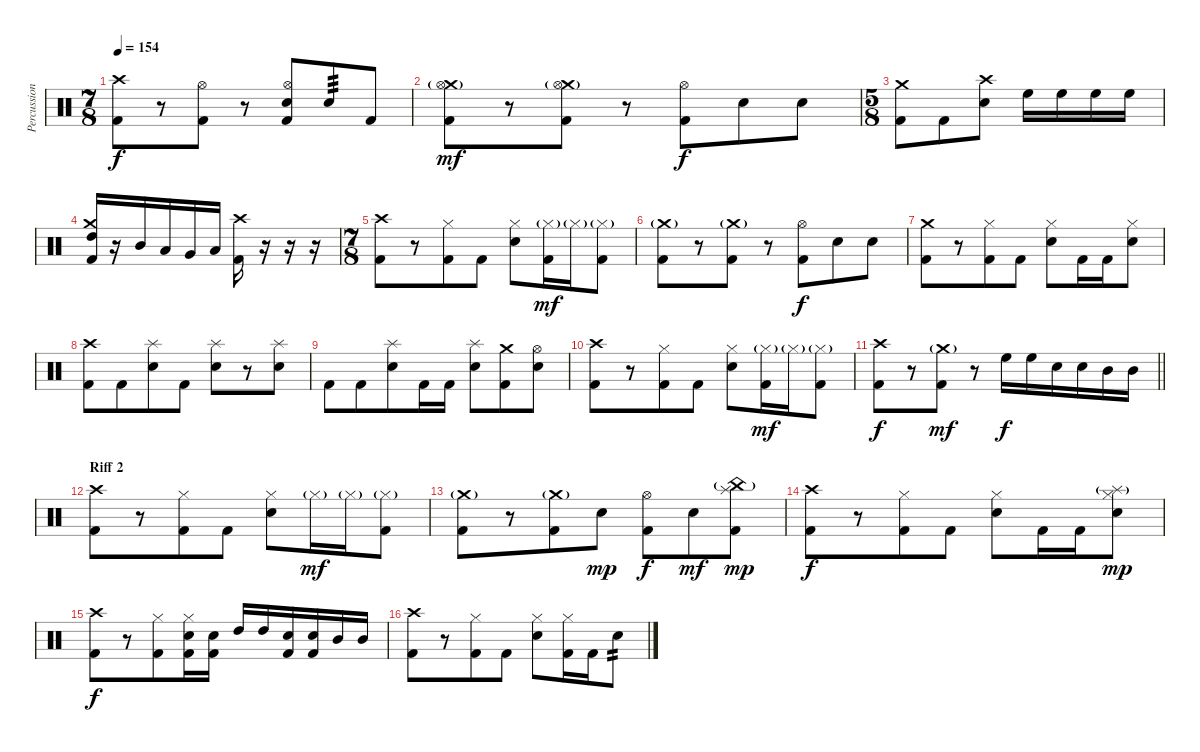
\track ("Percussions" "Percussion") {instrument percussion}
\staff {score}
\articulation defaults
\ts (7 8)
\tempo 154
\clef neutral
\ks c
("Crash high (hit)" "Kick (hit) 2").8{dy f} r.8 ("Hi-Hat (open)" "Kick (hit) 2").8 r.8 ("Hi-Hat (open)" "Electric Snare (hit)" "Kick (hit) 2").8 "Electric Snare (hit)".8{tp 3} "Kick (hit) 2".8 |
("Crash medium (hit)"{g} "Hi-Hat (open)" "Kick (hit) 2").8{dy mf} r.8 ("Crash medium (hit)"{g} "Hi-Hat (open)" "Kick (hit) 2").8 r.8 ("Hi-Hat (open)" "Kick (hit) 2").8{dy f} "Electric Snare (hit)".8 "Electric Snare (hit)".8 |
\ts (5 8)
("Crash medium (hit)" "Kick (hit) 2").8 "Kick (hit) 2".8 ("Crash high (hit)" "Electric Snare (hit)").8 "High Floor Tom (hit)".16 "High Floor Tom (hit)".16 "High Floor Tom (hit)".16 "High Floor Tom (hit)".16 |
("Crash medium (hit)" "High Tom (hit)" "Kick (hit) 2").16 r.16 "Mid Tom (hit)".16 "Low Tom (hit)".16 "Very Low Tom (hit)".16 "Low Floor Tom (hit)".16 ("Crash high (hit)" "Kick (hit) 2").16 r.16 r.16 r.16 |
\ts (7 8)
("Crash high (hit)" "Kick (hit) 2").8 r.8 ("Hi-Hat (closed)" "Kick (hit) 2").8 "Kick (hit) 2".8 ("Hi-Hat (closed)" "Electric Snare (hit)").8 ("Hi-Hat (closed)"{g} "Kick (hit) 2").16{dy mf} "Hi-Hat (closed)"{g}.16 ("Hi-Hat (closed)"{g} "Kick (hit) 2").8 |
("Crash medium (hit)"{g} "Kick (hit) 2").8 r.8 ("Crash medium (hit)"{g} "Kick (hit) 2").8 r.8 ("Hi-Hat (open)" "Kick (hit) 2").8{dy f} "Electric Snare (hit)".8 "Electric Snare (hit)".8 |
("Crash medium (hit)" "Kick (hit) 2").8 r.8 ("Hi-Hat (closed)" "Kick (hit) 2").8 "Kick (hit) 2".8 ("Hi-Hat (closed)" "Electric Snare (hit)").8 "Kick (hit) 2".16 "Kick (hit) 2".16 ("Hi-Hat (closed)" "Electric Snare (hit)").8 |
("Crash high (hit)" "Kick (hit) 2").8 "Kick (hit) 2".8 ("Splash (hit)" "Electric Snare (hit)").8 "Kick (hit) 2".8 ("Splash (hit)" "Electric Snare (hit)").8 r.8 ("Splash (hit)" "Electric Snare (hit)").8 |
"Kick (hit) 2".8 "Kick (hit) 2".8 ("Splash (hit)" "Electric Snare (hit)").8 "Kick (hit) 2".16 "Kick (hit) 2".16 ("Splash (hit)" "Electric Snare (hit)").8 ("Crash medium (hit)" "Kick (hit) 2").8 ("Hi-Hat (open)" "Electric Snare (hit)").8 |
("Crash high (hit)" "Kick (hit) 2").8 r.8 ("Hi-Hat (closed)" "Kick (hit) 2").8 "Kick (hit) 2".8 ("Hi-Hat (closed)" "Electric Snare (hit)").8 ("Hi-Hat (closed)"{g} "Kick (hit) 2").16{dy mf} "Hi-Hat (closed)"{g}.16 ("Hi-Hat (closed)"{g} "Kick (hit) 2").8 |
\barLineRight lightlight
("Crash high (hit)" "Kick (hit) 2").8{dy f} r.8 ("Crash medium (hit)"{g} "Kick (hit) 2").8{dy mf} r.8 "High Floor Tom (hit)".16{dy f} "High Floor Tom (hit)".16 "Electric Snare (hit)".16 "Electric Snare (hit)".16 "Mid Tom (hit)".16 "Mid Tom (hit)".16 |
\section ("" "Riff 2")
("Crash high (hit)" "Kick (hit) 2").8 r.8 ("Hi-Hat (closed)" "Kick (hit) 2").8 "Kick (hit) 2".8 ("Hi-Hat (closed)" "Electric Snare (hit)").8 "Hi-Hat (closed)"{g}.16{dy mf} "Hi-Hat (closed)"{g}.16 ("Hi-Hat (closed)"{g} "Kick (hit) 2").8 |
("Crash medium (hit)"{g} "Kick (hit) 2").8 r.8 ("Crash medium (hit)"{g} "Kick (hit) 2").8 "Electric Snare (hit)".8{dy mp} ("Hi-Hat (open)" "Kick (hit) 2").8{dy f} "Electric Snare (hit)".8{dy mf} ("China (hit)"{g} "Splash (hit)" "Kick (hit) 2").8{dy mp} |
("Crash high (hit)" "Kick (hit) 2").8{dy f} r.8 ("Hi-Hat (closed)" "Kick (hit) 2").8 "Kick (hit) 2".8 ("Hi-Hat (closed)" "Electric Snare (hit)").8 "Kick (hit) 2".16 "Kick (hit) 2".16 ("Splash (hit)"{g} "Hi-Hat (closed)" "Electric Snare (hit)").8{dy mp} |
("Crash high (hit)" "Kick (hit) 2").8{dy f} r.8 ("Hi-Hat (closed)" "Kick (hit) 2").8 ("Hi-Hat (closed)" "Electric Snare (hit)" "Kick (hit) 2").16 ("Electric Snare (hit)" "Kick (hit) 2").16 "High Tom (hit)".16 "High Tom (hit)".16 ("Electric Snare (hit)" "Kick (hit) 2").16 ("Electric Snare (hit)" "Kick (hit) 2").16 "Mid Tom (hit)".16 "Mid Tom (hit)".16 |
("Crash high (hit)" "Kick (hit) 2").8 r.8 ("Hi-Hat (closed)" "Kick (hit) 2").8 "Kick (hit) 2".8 ("Hi-Hat (closed)" "Electric Snare (hit)").8 ("Hi-Hat (closed)" "Kick (hit) 2").16 "Kick (hit) 2".16 "Electric Snare (hit)".8{tp 2}
